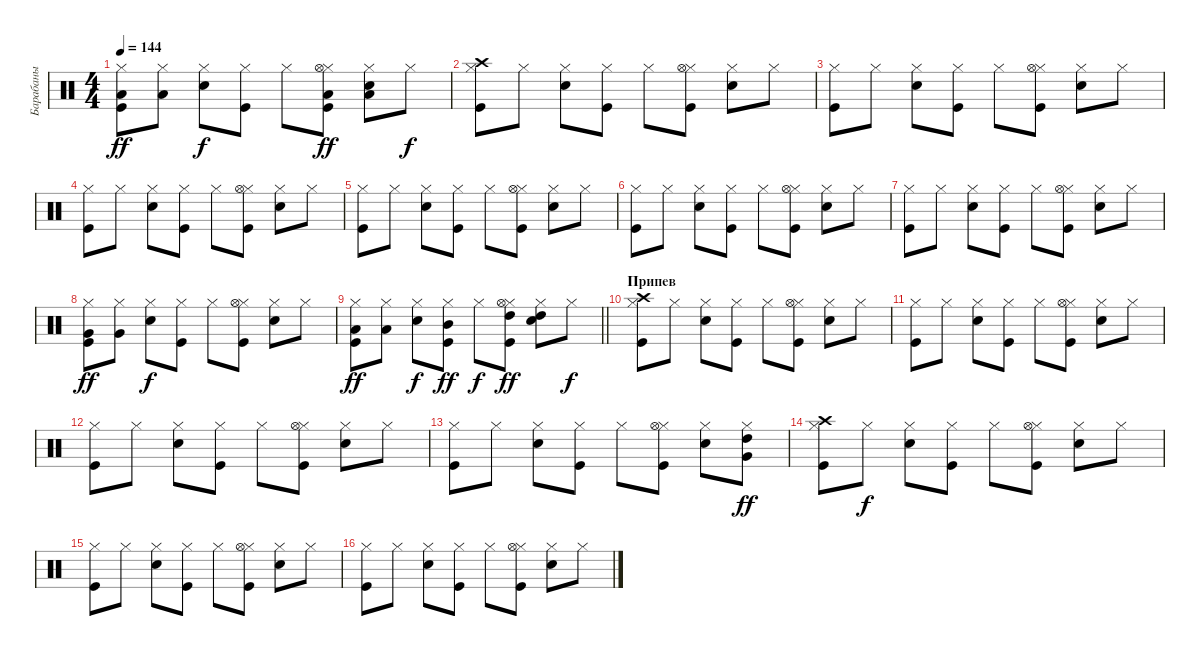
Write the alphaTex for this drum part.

\track ("Барабаны" "Барабаны") {instrument percussion}
\staff {score}
\articulation defaults
\ts (4 4)
\tempo 144
\clef neutral
\ks c
("Kick (hit)" "Hi-Hat (closed)" "Low Tom (hit)").8{dy ff} ("Hi-Hat (closed)" "Low Tom (hit)").8 ("Snare (hit) 2" "Hi-Hat (closed)").8{dy f} ("Kick (hit)" "Hi-Hat (closed)").8 "Hi-Hat (closed)".8 ("Kick (hit)" "Hi-Hat (closed)" "Low Tom (hit)" "Hi-Hat (open)").8{dy ff} ("Snare (hit) 2" "Hi-Hat (closed)" "Low Tom (hit)").8 "Hi-Hat (closed)".8{dy f} |
("Kick (hit)" "Hi-Hat (closed)" "Crash high (hit)").8 "Hi-Hat (closed)".8 ("Snare (hit) 2" "Hi-Hat (closed)").8 ("Kick (hit)" "Hi-Hat (closed)").8 "Hi-Hat (closed)".8 ("Kick (hit)" "Hi-Hat (closed)" "Hi-Hat (open)").8 ("Snare (hit) 2" "Hi-Hat (closed)").8 "Hi-Hat (closed)".8 |
("Kick (hit)" "Hi-Hat (closed)").8 "Hi-Hat (closed)".8 ("Snare (hit) 2" "Hi-Hat (closed)").8 ("Kick (hit)" "Hi-Hat (closed)").8 "Hi-Hat (closed)".8 ("Kick (hit)" "Hi-Hat (closed)" "Hi-Hat (open)").8 ("Snare (hit) 2" "Hi-Hat (closed)").8 "Hi-Hat (closed)".8 |
("Kick (hit)" "Hi-Hat (closed)").8 "Hi-Hat (closed)".8 ("Snare (hit) 2" "Hi-Hat (closed)").8 ("Kick (hit)" "Hi-Hat (closed)").8 "Hi-Hat (closed)".8 ("Kick (hit)" "Hi-Hat (closed)" "Hi-Hat (open)").8 ("Snare (hit) 2" "Hi-Hat (closed)").8 "Hi-Hat (closed)".8 |
("Kick (hit)" "Hi-Hat (closed)").8 "Hi-Hat (closed)".8 ("Snare (hit) 2" "Hi-Hat (closed)").8 ("Kick (hit)" "Hi-Hat (closed)").8 "Hi-Hat (closed)".8 ("Kick (hit)" "Hi-Hat (closed)" "Hi-Hat (open)").8 ("Snare (hit) 2" "Hi-Hat (closed)").8 "Hi-Hat (closed)".8 |
("Kick (hit)" "Hi-Hat (closed)").8 "Hi-Hat (closed)".8 ("Snare (hit) 2" "Hi-Hat (closed)").8 ("Kick (hit)" "Hi-Hat (closed)").8 "Hi-Hat (closed)".8 ("Kick (hit)" "Hi-Hat (closed)" "Hi-Hat (open)").8 ("Snare (hit) 2" "Hi-Hat (closed)").8 "Hi-Hat (closed)".8 |
("Kick (hit)" "Hi-Hat (closed)").8 "Hi-Hat (closed)".8 ("Snare (hit) 2" "Hi-Hat (closed)").8 ("Kick (hit)" "Hi-Hat (closed)").8 "Hi-Hat (closed)".8 ("Kick (hit)" "Hi-Hat (closed)" "Hi-Hat (open)").8 ("Snare (hit) 2" "Hi-Hat (closed)").8 "Hi-Hat (closed)".8 |
("Kick (hit)" "Hi-Hat (closed)" "Very Low Tom (hit)").8{dy ff} ("Hi-Hat (closed)" "Very Low Tom (hit)").8 ("Snare (hit) 2" "Hi-Hat (closed)").8{dy f} ("Kick (hit)" "Hi-Hat (closed)").8 "Hi-Hat (closed)".8 ("Kick (hit)" "Hi-Hat (closed)" "Hi-Hat (open)").8 ("Snare (hit) 2" "Hi-Hat (closed)").8 "Hi-Hat (closed)".8 |
\barLineRight lightlight
("Kick (hit)" "Hi-Hat (closed)" "Low Tom (hit)").8{dy ff} ("Hi-Hat (closed)" "Low Tom (hit)").8 ("Snare (hit) 2" "Hi-Hat (closed)").8{dy f} ("Kick (hit)" "Hi-Hat (closed)" "Mid Tom (hit)").8{dy ff} "Hi-Hat (closed)".8{dy f} ("Kick (hit)" "Hi-Hat (closed)" "High Tom (hit)" "Hi-Hat (open)").8{dy ff} ("Snare (hit) 2" "Hi-Hat (closed)" "High Tom (hit)").8 "Hi-Hat (closed)".8{dy f} |
\section ("" "Припев")
("Kick (hit)" "Hi-Hat (closed)" "Crash high (hit)").8 "Hi-Hat (closed)".8 ("Snare (hit) 2" "Hi-Hat (closed)").8 ("Kick (hit)" "Hi-Hat (closed)").8 "Hi-Hat (closed)".8 ("Kick (hit)" "Hi-Hat (closed)" "Hi-Hat (open)").8 ("Snare (hit) 2" "Hi-Hat (closed)").8 "Hi-Hat (closed)".8 |
("Kick (hit)" "Hi-Hat (closed)").8 "Hi-Hat (closed)".8 ("Snare (hit) 2" "Hi-Hat (closed)").8 ("Kick (hit)" "Hi-Hat (closed)").8 "Hi-Hat (closed)".8 ("Kick (hit)" "Hi-Hat (closed)" "Hi-Hat (open)").8 ("Snare (hit) 2" "Hi-Hat (closed)").8 "Hi-Hat (closed)".8 |
("Kick (hit)" "Hi-Hat (closed)").8 "Hi-Hat (closed)".8 ("Snare (hit) 2" "Hi-Hat (closed)").8 ("Kick (hit)" "Hi-Hat (closed)").8 "Hi-Hat (closed)".8 ("Kick (hit)" "Hi-Hat (closed)" "Hi-Hat (open)").8 ("Snare (hit) 2" "Hi-Hat (closed)").8 "Hi-Hat (closed)".8 |
("Kick (hit)" "Hi-Hat (closed)").8 "Hi-Hat (closed)".8 ("Snare (hit) 2" "Hi-Hat (closed)").8 ("Kick (hit)" "Hi-Hat (closed)").8 "Hi-Hat (closed)".8 ("Kick (hit)" "Hi-Hat (closed)" "Hi-Hat (open)").8 ("Snare (hit) 2" "Hi-Hat (closed)").8 ("Hi-Hat (closed)" "Very Low Tom (hit)" "High Tom (hit)").8{dy ff} |
("Kick (hit)" "Hi-Hat (closed)" "Crash high (hit)").8 "Hi-Hat (closed)".8{dy f} ("Snare (hit) 2" "Hi-Hat (closed)").8 ("Kick (hit)" "Hi-Hat (closed)").8 "Hi-Hat (closed)".8 ("Kick (hit)" "Hi-Hat (closed)" "Hi-Hat (open)").8 ("Snare (hit) 2" "Hi-Hat (closed)").8 "Hi-Hat (closed)".8 |
("Kick (hit)" "Hi-Hat (closed)").8 "Hi-Hat (closed)".8 ("Snare (hit) 2" "Hi-Hat (closed)").8 ("Kick (hit)" "Hi-Hat (closed)").8 "Hi-Hat (closed)".8 ("Kick (hit)" "Hi-Hat (closed)" "Hi-Hat (open)").8 ("Snare (hit) 2" "Hi-Hat (closed)").8 "Hi-Hat (closed)".8 |
("Kick (hit)" "Hi-Hat (closed)").8 "Hi-Hat (closed)".8 ("Snare (hit) 2" "Hi-Hat (closed)").8 ("Kick (hit)" "Hi-Hat (closed)").8 "Hi-Hat (closed)".8 ("Kick (hit)" "Hi-Hat (closed)" "Hi-Hat (open)").8 ("Snare (hit) 2" "Hi-Hat (closed)").8 "Hi-Hat (closed)".8
